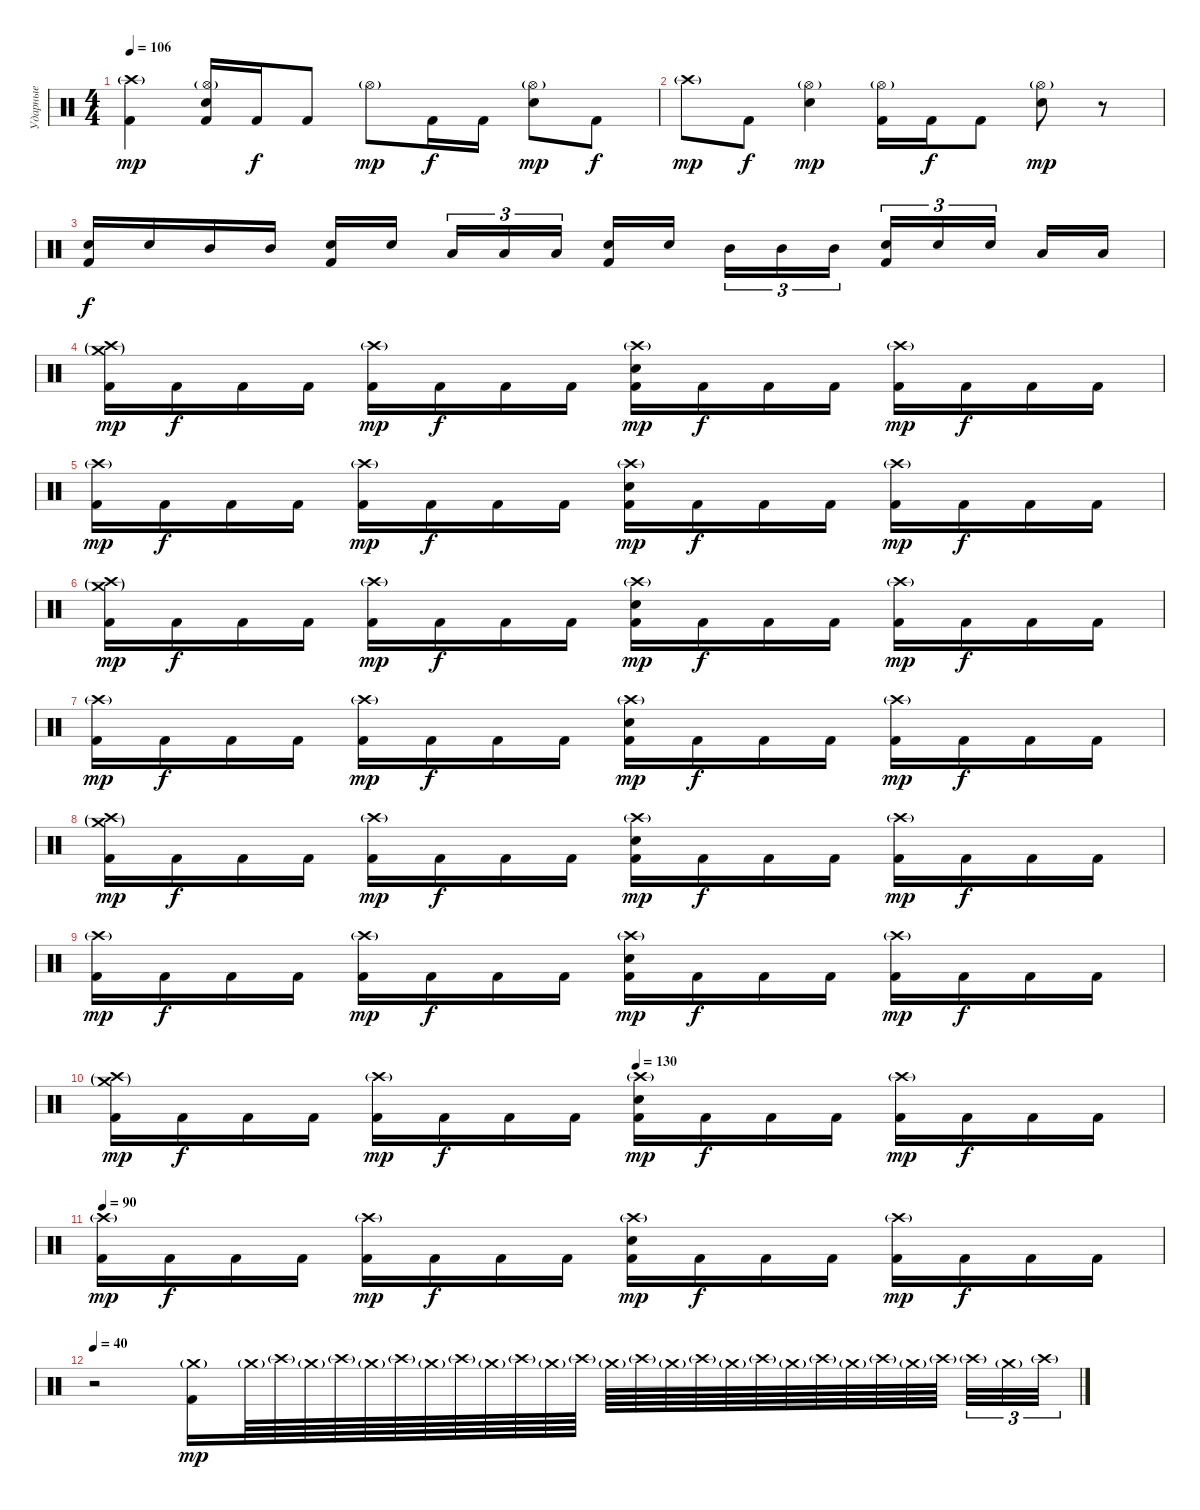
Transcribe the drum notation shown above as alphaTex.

\track ("Ударные" "Ударные") {instrument percussion}
\staff {score}
\articulation defaults
\ts (4 4)
\tempo 106
\clef neutral
\ks c
("Crash high (hit)"{g} "Kick (hit) 2").4{dy mp} ("Hi-Hat (open)"{g} "Electric Snare (hit)" "Kick (hit) 2").16 "Kick (hit) 2".16{dy f} "Kick (hit) 2".8 "Hi-Hat (open)"{g}.8{dy mp} "Kick (hit) 2".16{dy f} "Kick (hit) 2".16 ("Hi-Hat (open)"{g} "Electric Snare (hit)").8{dy mp} "Kick (hit) 2".8{dy f} |
"Crash high (hit)"{g}.8{dy mp} "Kick (hit) 2".8{dy f} ("Hi-Hat (open)"{g} "Electric Snare (hit)").4{dy mp} ("Hi-Hat (open)"{g} "Kick (hit) 2").16 "Kick (hit) 2".16{dy f} "Kick (hit) 2".8 ("Hi-Hat (open)"{g} "Electric Snare (hit)").8{dy mp} r.8 |
("Electric Snare (hit)" "Kick (hit) 2").16{dy f} "Electric Snare (hit)".16 "Mid Tom (hit)".16 "Mid Tom (hit)".16 ("Electric Snare (hit)" "Kick (hit) 2").16 "Electric Snare (hit)".16{beam splitsecondary} "Low Tom (hit)".16{tu (3 2)} "Low Tom (hit)".16{tu (3 2)} "Low Tom (hit)".16{tu (3 2)} ("Electric Snare (hit)" "Kick (hit) 2").16 "Electric Snare (hit)".16{beam splitsecondary} "Mid Tom (hit)".16{tu (3 2)} "Mid Tom (hit)".16{tu (3 2)} "Mid Tom (hit)".16{tu (3 2)} ("Electric Snare (hit)" "Kick (hit) 2").16{tu (3 2)} "Electric Snare (hit)".16{tu (3 2)} "Electric Snare (hit)".16{tu (3 2) beam splitsecondary} "Low Tom (hit)".16 "Low Tom (hit)".16 |
("Crash high (hit)"{g} "Crash medium (hit)"{g} "Kick (hit) 2").16{dy mp} "Kick (hit) 2".16{dy f} "Kick (hit) 2".16 "Kick (hit) 2".16 ("Crash high (hit)"{g} "Kick (hit) 2").16{dy mp} "Kick (hit) 2".16{dy f} "Kick (hit) 2".16 "Kick (hit) 2".16 ("Crash high (hit)"{g} "Electric Snare (hit)" "Kick (hit) 2").16{dy mp} "Kick (hit) 2".16{dy f} "Kick (hit) 2".16 "Kick (hit) 2".16 ("Crash high (hit)"{g} "Kick (hit) 2").16{dy mp} "Kick (hit) 2".16{dy f} "Kick (hit) 2".16 "Kick (hit) 2".16 |
("Crash high (hit)"{g} "Kick (hit) 2").16{dy mp} "Kick (hit) 2".16{dy f} "Kick (hit) 2".16 "Kick (hit) 2".16 ("Crash high (hit)"{g} "Kick (hit) 2").16{dy mp} "Kick (hit) 2".16{dy f} "Kick (hit) 2".16 "Kick (hit) 2".16 ("Crash high (hit)"{g} "Electric Snare (hit)" "Kick (hit) 2").16{dy mp} "Kick (hit) 2".16{dy f} "Kick (hit) 2".16 "Kick (hit) 2".16 ("Crash high (hit)"{g} "Kick (hit) 2").16{dy mp} "Kick (hit) 2".16{dy f} "Kick (hit) 2".16 "Kick (hit) 2".16 |
("Crash high (hit)"{g} "Crash medium (hit)"{g} "Kick (hit) 2").16{dy mp} "Kick (hit) 2".16{dy f} "Kick (hit) 2".16 "Kick (hit) 2".16 ("Crash high (hit)"{g} "Kick (hit) 2").16{dy mp} "Kick (hit) 2".16{dy f} "Kick (hit) 2".16 "Kick (hit) 2".16 ("Crash high (hit)"{g} "Electric Snare (hit)" "Kick (hit) 2").16{dy mp} "Kick (hit) 2".16{dy f} "Kick (hit) 2".16 "Kick (hit) 2".16 ("Crash high (hit)"{g} "Kick (hit) 2").16{dy mp} "Kick (hit) 2".16{dy f} "Kick (hit) 2".16 "Kick (hit) 2".16 |
("Crash high (hit)"{g} "Kick (hit) 2").16{dy mp} "Kick (hit) 2".16{dy f} "Kick (hit) 2".16 "Kick (hit) 2".16 ("Crash high (hit)"{g} "Kick (hit) 2").16{dy mp} "Kick (hit) 2".16{dy f} "Kick (hit) 2".16 "Kick (hit) 2".16 ("Crash high (hit)"{g} "Electric Snare (hit)" "Kick (hit) 2").16{dy mp} "Kick (hit) 2".16{dy f} "Kick (hit) 2".16 "Kick (hit) 2".16 ("Crash high (hit)"{g} "Kick (hit) 2").16{dy mp} "Kick (hit) 2".16{dy f} "Kick (hit) 2".16 "Kick (hit) 2".16 |
("Crash high (hit)"{g} "Crash medium (hit)"{g} "Kick (hit) 2").16{dy mp} "Kick (hit) 2".16{dy f} "Kick (hit) 2".16 "Kick (hit) 2".16 ("Crash high (hit)"{g} "Kick (hit) 2").16{dy mp} "Kick (hit) 2".16{dy f} "Kick (hit) 2".16 "Kick (hit) 2".16 ("Crash high (hit)"{g} "Electric Snare (hit)" "Kick (hit) 2").16{dy mp} "Kick (hit) 2".16{dy f} "Kick (hit) 2".16 "Kick (hit) 2".16 ("Crash high (hit)"{g} "Kick (hit) 2").16{dy mp} "Kick (hit) 2".16{dy f} "Kick (hit) 2".16 "Kick (hit) 2".16 |
("Crash high (hit)"{g} "Kick (hit) 2").16{dy mp} "Kick (hit) 2".16{dy f} "Kick (hit) 2".16 "Kick (hit) 2".16 ("Crash high (hit)"{g} "Kick (hit) 2").16{dy mp} "Kick (hit) 2".16{dy f} "Kick (hit) 2".16 "Kick (hit) 2".16 ("Crash high (hit)"{g} "Electric Snare (hit)" "Kick (hit) 2").16{dy mp} "Kick (hit) 2".16{dy f} "Kick (hit) 2".16 "Kick (hit) 2".16 ("Crash high (hit)"{g} "Kick (hit) 2").16{dy mp} "Kick (hit) 2".16{dy f} "Kick (hit) 2".16 "Kick (hit) 2".16 |
\tempo (130 0.5)
("Crash high (hit)"{g} "Crash medium (hit)"{g} "Kick (hit) 2").16{dy mp} "Kick (hit) 2".16{dy f} "Kick (hit) 2".16 "Kick (hit) 2".16 ("Crash high (hit)"{g} "Kick (hit) 2").16{dy mp} "Kick (hit) 2".16{dy f} "Kick (hit) 2".16 "Kick (hit) 2".16 ("Crash high (hit)"{g} "Electric Snare (hit)" "Kick (hit) 2").16{dy mp} "Kick (hit) 2".16{dy f} "Kick (hit) 2".16 "Kick (hit) 2".16 ("Crash high (hit)"{g} "Kick (hit) 2").16{dy mp} "Kick (hit) 2".16{dy f} "Kick (hit) 2".16 "Kick (hit) 2".16 |
\tempo 90
("Crash high (hit)"{g} "Kick (hit) 2").16{dy mp} "Kick (hit) 2".16{dy f} "Kick (hit) 2".16 "Kick (hit) 2".16 ("Crash high (hit)"{g} "Kick (hit) 2").16{dy mp} "Kick (hit) 2".16{dy f} "Kick (hit) 2".16 "Kick (hit) 2".16 ("Crash high (hit)"{g} "Electric Snare (hit)" "Kick (hit) 2").16{dy mp} "Kick (hit) 2".16{dy f} "Kick (hit) 2".16 "Kick (hit) 2".16 ("Crash high (hit)"{g} "Kick (hit) 2").16{dy mp} "Kick (hit) 2".16{dy f} "Kick (hit) 2".16 "Kick (hit) 2".16 |
\tempo 40
r.2 ("Crash medium (hit)"{g} "Kick (hit) 2").16{dy mp} "Crash medium (hit)"{g}.64 "Crash high (hit)"{g}.64 "Crash medium (hit)"{g}.64 "Crash high (hit)"{g}.64 "Crash medium (hit)"{g}.64 "Crash high (hit)"{g}.64 "Crash medium (hit)"{g}.64 "Crash high (hit)"{g}.64 "Crash medium (hit)"{g}.64 "Crash high (hit)"{g}.64 "Crash medium (hit)"{g}.64 "Crash high (hit)"{g}.64 "Crash medium (hit)"{g}.64 "Crash high (hit)"{g}.64 "Crash medium (hit)"{g}.64 "Crash high (hit)"{g}.64 "Crash medium (hit)"{g}.64 "Crash high (hit)"{g}.64 "Crash medium (hit)"{g}.64 "Crash high (hit)"{g}.64 "Crash medium (hit)"{g}.64 "Crash high (hit)"{g}.64 "Crash medium (hit)"{g}.64 "Crash high (hit)"{g}.64{beam splitsecondary} "Crash high (hit)"{g}.32{tu (3 2)} "Crash medium (hit)"{g}.32{tu (3 2)} "Crash high (hit)"{g}.32{tu (3 2)}
